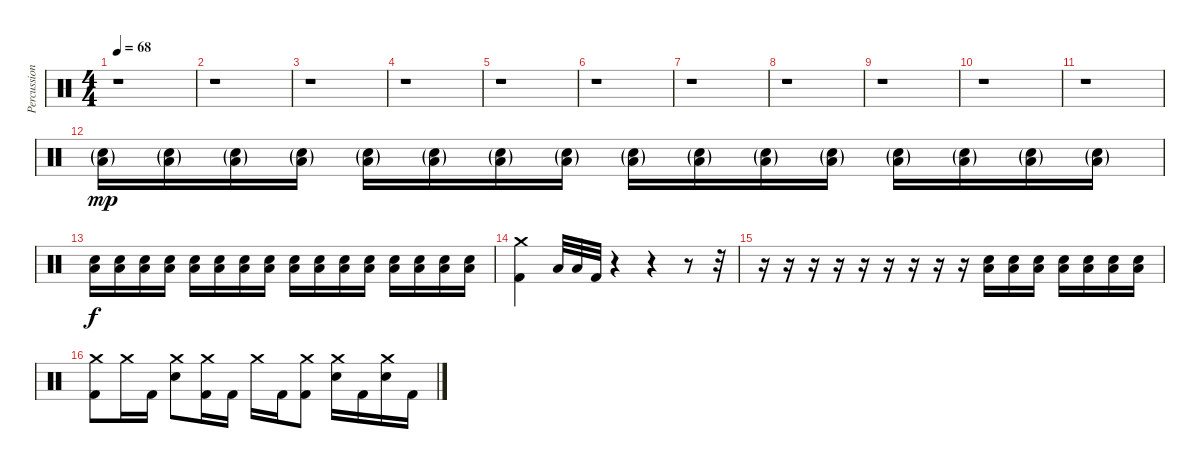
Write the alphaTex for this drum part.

\track ("Percussion" "Percussion") {instrument percussion}
\staff {score}
\articulation defaults
\ts (4 4)
\tempo 68
\clef neutral
\ks c
r.1{dy f} |
r.1 |
r.1 |
r.1 |
r.1 |
r.1 |
r.1 |
r.1 |
r.1 |
r.1 |
r.1 |
("Electric Snare (hit)"{g} "Low Floor Tom (hit)"{g}).16{dy mp} ("Electric Snare (hit)"{g} "Low Floor Tom (hit)"{g}).16 ("Electric Snare (hit)"{g} "Low Floor Tom (hit)"{g}).16 ("Electric Snare (hit)"{g} "Low Floor Tom (hit)"{g}).16 ("Electric Snare (hit)"{g} "Low Floor Tom (hit)"{g}).16 ("Electric Snare (hit)"{g} "Low Floor Tom (hit)"{g}).16 ("Electric Snare (hit)"{g} "Low Floor Tom (hit)"{g}).16 ("Electric Snare (hit)"{g} "Low Floor Tom (hit)"{g}).16 ("Electric Snare (hit)"{g} "Low Floor Tom (hit)"{g}).16 ("Electric Snare (hit)"{g} "Low Floor Tom (hit)"{g}).16 ("Electric Snare (hit)"{g} "Low Floor Tom (hit)"{g}).16 ("Electric Snare (hit)"{g} "Low Floor Tom (hit)"{g}).16 ("Electric Snare (hit)"{g} "Low Floor Tom (hit)"{g}).16 ("Electric Snare (hit)"{g} "Low Floor Tom (hit)"{g}).16 ("Electric Snare (hit)"{g} "Low Floor Tom (hit)"{g}).16 ("Electric Snare (hit)"{g} "Low Floor Tom (hit)"{g}).16 |
("Electric Snare (hit)" "Low Floor Tom (hit)").16{dy f} ("Electric Snare (hit)" "Low Floor Tom (hit)").16 ("Electric Snare (hit)" "Low Floor Tom (hit)").16 ("Electric Snare (hit)" "Low Floor Tom (hit)").16 ("Electric Snare (hit)" "Low Floor Tom (hit)").16 ("Electric Snare (hit)" "Low Floor Tom (hit)").16 ("Electric Snare (hit)" "Low Floor Tom (hit)").16 ("Electric Snare (hit)" "Low Floor Tom (hit)").16 ("Electric Snare (hit)" "Low Floor Tom (hit)").16 ("Electric Snare (hit)" "Low Floor Tom (hit)").16 ("Electric Snare (hit)" "Low Floor Tom (hit)").16 ("Electric Snare (hit)" "Low Floor Tom (hit)").16 ("Electric Snare (hit)" "Low Floor Tom (hit)").16 ("Electric Snare (hit)" "Low Floor Tom (hit)").16 ("Electric Snare (hit)" "Low Floor Tom (hit)").16 ("Electric Snare (hit)" "Low Floor Tom (hit)").16 |
("Crash medium (hit)" "Kick (hit) 2").4 "Low Tom (hit)".32 "Low Floor Tom (hit)".32 "Kick (hit) 2".32 r.4 r.4 r.8 r.32 |
r.16 r.16 r.16 r.16 r.16 r.16 r.16 r.16 r.16 ("Electric Snare (hit)" "Low Floor Tom (hit)").16 ("Electric Snare (hit)" "Low Floor Tom (hit)").16 ("Electric Snare (hit)" "Low Floor Tom (hit)").16 ("Electric Snare (hit)" "Low Floor Tom (hit)").16 ("Electric Snare (hit)" "Low Floor Tom (hit)").16 ("Electric Snare (hit)" "Low Floor Tom (hit)").16 ("Electric Snare (hit)" "Low Floor Tom (hit)").16 |
("Crash medium (hit)" "Kick (hit) 2").8 "Crash medium (hit)".16 "Kick (hit) 2".16 ("Crash medium (hit)" "Electric Snare (hit)").8 ("Crash medium (hit)" "Kick (hit) 2").16 "Kick (hit) 2".16 "Crash medium (hit)".16 "Kick (hit) 2".16 ("Crash medium (hit)" "Kick (hit) 2").8 ("Crash medium (hit)" "Electric Snare (hit)").16 "Kick (hit) 2".16 ("Crash medium (hit)" "Electric Snare (hit)").16 "Kick (hit) 2".16
